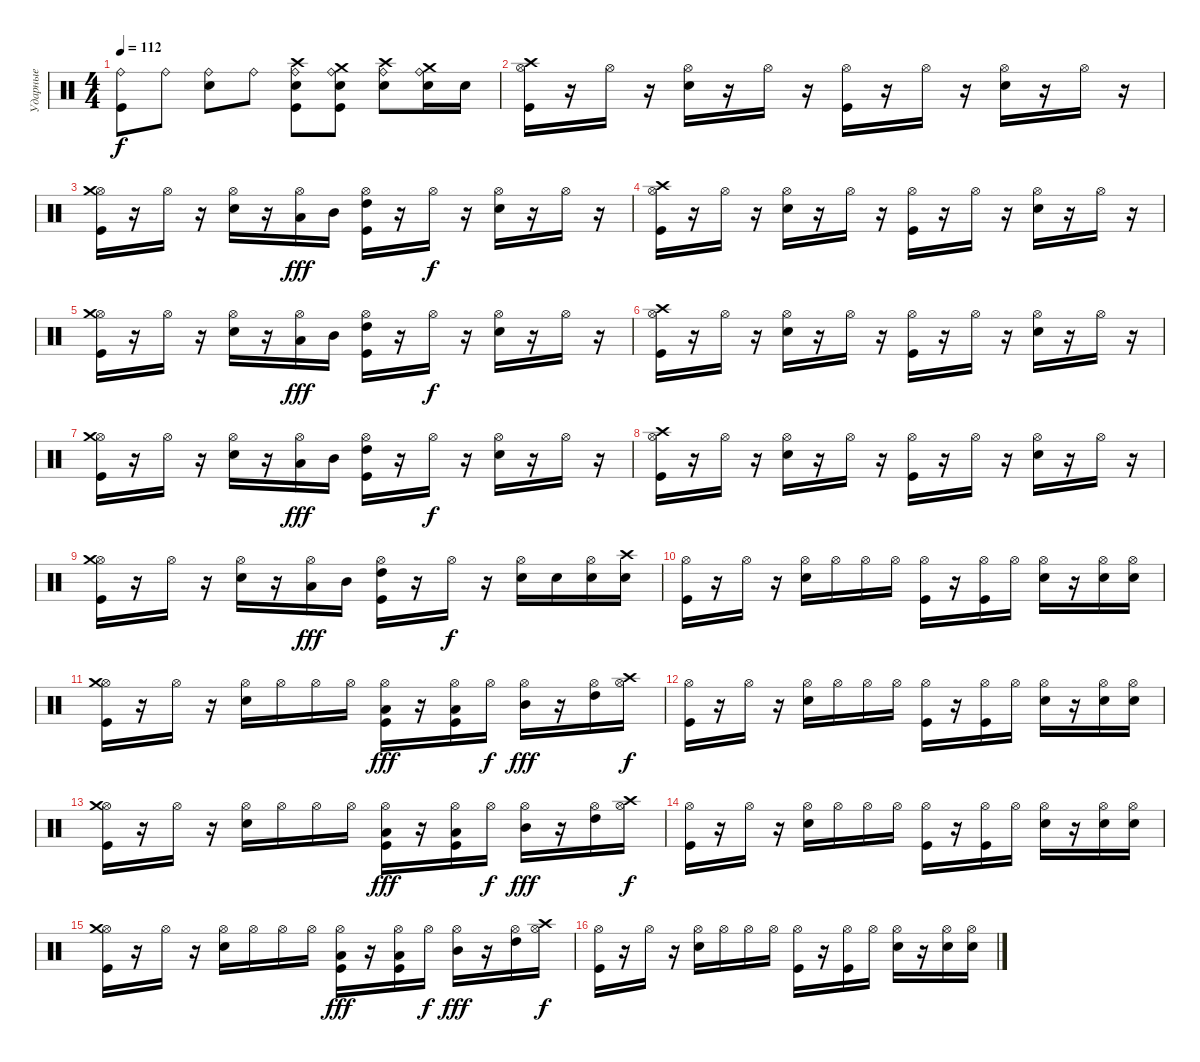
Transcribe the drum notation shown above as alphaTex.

\track ("Ударные" "Ударные") {instrument percussion}
\staff {score}
\articulation defaults
\ts (4 4)
\tempo 112
\clef neutral
\ks c
("Ride (bell)" "Kick (hit)").8{dy f} "Ride (bell)".8 ("Ride (bell)" "Snare (hit) 2").8 "Ride (bell)".8 ("Ride (bell)" "Crash high (hit)" "Snare (hit) 2" "Kick (hit)").8 ("Ride (bell)" "Crash medium (hit)" "Snare (hit) 2" "Kick (hit)").8 ("Ride (bell)" "Crash high (hit)" "Snare (hit) 2").8 ("Ride (bell)" "Crash medium (hit)" "Snare (hit) 2").16 "Snare (hit) 2".16 |
("Hi-Hat (open)" "Crash high (hit)" "Kick (hit)").16 r.16 "Hi-Hat (open)".16 r.16 ("Hi-Hat (open)" "Snare (hit) 2").16 r.16 "Hi-Hat (open)".16 r.16 ("Hi-Hat (open)" "Kick (hit)").16 r.16 "Hi-Hat (open)".16 r.16 ("Hi-Hat (open)" "Snare (hit) 2").16 r.16 "Hi-Hat (open)".16 r.16 |
("Hi-Hat (open)" "Crash medium (hit)" "Kick (hit)").16 r.16 "Hi-Hat (open)".16 r.16 ("Hi-Hat (open)" "Snare (hit) 2").16 r.16 ("Hi-Hat (open)" "Low Tom (hit)").16{dy fff} "Mid Tom (hit)".16 ("Hi-Hat (open)" "High Tom (hit)" "Kick (hit)").16 r.16 "Hi-Hat (open)".16{dy f} r.16 ("Hi-Hat (open)" "Snare (hit) 2").16 r.16 "Hi-Hat (open)".16 r.16 |
("Hi-Hat (open)" "Crash high (hit)" "Kick (hit)").16 r.16 "Hi-Hat (open)".16 r.16 ("Hi-Hat (open)" "Snare (hit) 2").16 r.16 "Hi-Hat (open)".16 r.16 ("Hi-Hat (open)" "Kick (hit)").16 r.16 "Hi-Hat (open)".16 r.16 ("Hi-Hat (open)" "Snare (hit) 2").16 r.16 "Hi-Hat (open)".16 r.16 |
("Hi-Hat (open)" "Crash medium (hit)" "Kick (hit)").16 r.16 "Hi-Hat (open)".16 r.16 ("Hi-Hat (open)" "Snare (hit) 2").16 r.16 ("Hi-Hat (open)" "Low Tom (hit)").16{dy fff} "Mid Tom (hit)".16 ("Hi-Hat (open)" "High Tom (hit)" "Kick (hit)").16 r.16 "Hi-Hat (open)".16{dy f} r.16 ("Hi-Hat (open)" "Snare (hit) 2").16 r.16 "Hi-Hat (open)".16 r.16 |
("Hi-Hat (open)" "Crash high (hit)" "Kick (hit)").16 r.16 "Hi-Hat (open)".16 r.16 ("Hi-Hat (open)" "Snare (hit) 2").16 r.16 "Hi-Hat (open)".16 r.16 ("Hi-Hat (open)" "Kick (hit)").16 r.16 "Hi-Hat (open)".16 r.16 ("Hi-Hat (open)" "Snare (hit) 2").16 r.16 "Hi-Hat (open)".16 r.16 |
("Hi-Hat (open)" "Crash medium (hit)" "Kick (hit)").16 r.16 "Hi-Hat (open)".16 r.16 ("Hi-Hat (open)" "Snare (hit) 2").16 r.16 ("Hi-Hat (open)" "Low Tom (hit)").16{dy fff} "Mid Tom (hit)".16 ("Hi-Hat (open)" "High Tom (hit)" "Kick (hit)").16 r.16 "Hi-Hat (open)".16{dy f} r.16 ("Hi-Hat (open)" "Snare (hit) 2").16 r.16 "Hi-Hat (open)".16 r.16 |
("Hi-Hat (open)" "Crash high (hit)" "Kick (hit)").16 r.16 "Hi-Hat (open)".16 r.16 ("Hi-Hat (open)" "Snare (hit) 2").16 r.16 "Hi-Hat (open)".16 r.16 ("Hi-Hat (open)" "Kick (hit)").16 r.16 "Hi-Hat (open)".16 r.16 ("Hi-Hat (open)" "Snare (hit) 2").16 r.16 "Hi-Hat (open)".16 r.16 |
("Hi-Hat (open)" "Crash medium (hit)" "Kick (hit)").16 r.16 "Hi-Hat (open)".16 r.16 ("Hi-Hat (open)" "Snare (hit) 2").16 r.16 ("Hi-Hat (open)" "Low Tom (hit)").16{dy fff} "Mid Tom (hit)".16 ("Hi-Hat (open)" "High Tom (hit)" "Kick (hit)").16 r.16 "Hi-Hat (open)".16{dy f} r.16 ("Hi-Hat (open)" "Snare (hit) 2").16 "Snare (hit) 2".16 ("Hi-Hat (open)" "Snare (hit) 2").16 ("Crash high (hit)" "Snare (hit) 2").16 |
("Hi-Hat (open)" "Kick (hit)").16 r.16 "Hi-Hat (open)".16 r.16 ("Hi-Hat (open)" "Snare (hit) 2").16 "Hi-Hat (open)".16 "Hi-Hat (open)".16 "Hi-Hat (open)".16 ("Hi-Hat (open)" "Kick (hit)").16 r.16 ("Hi-Hat (open)" "Kick (hit)").16 "Hi-Hat (open)".16 ("Hi-Hat (open)" "Snare (hit) 2").16 r.16 ("Hi-Hat (open)" "Snare (hit) 2").16 ("Hi-Hat (open)" "Snare (hit) 2").16 |
("Hi-Hat (open)" "Crash medium (hit)" "Kick (hit)").16 r.16 "Hi-Hat (open)".16 r.16 ("Hi-Hat (open)" "Snare (hit) 2").16 "Hi-Hat (open)".16 "Hi-Hat (open)".16 "Hi-Hat (open)".16 ("Hi-Hat (open)" "Low Tom (hit)" "Kick (hit)").16{dy fff} r.16 ("Hi-Hat (open)" "Low Tom (hit)" "Kick (hit)").16 "Hi-Hat (open)".16{dy f} ("Hi-Hat (open)" "Mid Tom (hit)").16{dy fff} r.16 ("Hi-Hat (open)" "High Tom (hit)").16 ("Hi-Hat (open)" "Crash high (hit)").16{dy f} |
("Hi-Hat (open)" "Kick (hit)").16 r.16 "Hi-Hat (open)".16 r.16 ("Hi-Hat (open)" "Snare (hit) 2").16 "Hi-Hat (open)".16 "Hi-Hat (open)".16 "Hi-Hat (open)".16 ("Hi-Hat (open)" "Kick (hit)").16 r.16 ("Hi-Hat (open)" "Kick (hit)").16 "Hi-Hat (open)".16 ("Hi-Hat (open)" "Snare (hit) 2").16 r.16 ("Hi-Hat (open)" "Snare (hit) 2").16 ("Hi-Hat (open)" "Snare (hit) 2").16 |
("Hi-Hat (open)" "Crash medium (hit)" "Kick (hit)").16 r.16 "Hi-Hat (open)".16 r.16 ("Hi-Hat (open)" "Snare (hit) 2").16 "Hi-Hat (open)".16 "Hi-Hat (open)".16 "Hi-Hat (open)".16 ("Hi-Hat (open)" "Low Tom (hit)" "Kick (hit)").16{dy fff} r.16 ("Hi-Hat (open)" "Low Tom (hit)" "Kick (hit)").16 "Hi-Hat (open)".16{dy f} ("Hi-Hat (open)" "Mid Tom (hit)").16{dy fff} r.16 ("Hi-Hat (open)" "High Tom (hit)").16 ("Hi-Hat (open)" "Crash high (hit)").16{dy f} |
("Hi-Hat (open)" "Kick (hit)").16 r.16 "Hi-Hat (open)".16 r.16 ("Hi-Hat (open)" "Snare (hit) 2").16 "Hi-Hat (open)".16 "Hi-Hat (open)".16 "Hi-Hat (open)".16 ("Hi-Hat (open)" "Kick (hit)").16 r.16 ("Hi-Hat (open)" "Kick (hit)").16 "Hi-Hat (open)".16 ("Hi-Hat (open)" "Snare (hit) 2").16 r.16 ("Hi-Hat (open)" "Snare (hit) 2").16 ("Hi-Hat (open)" "Snare (hit) 2").16 |
("Hi-Hat (open)" "Crash medium (hit)" "Kick (hit)").16 r.16 "Hi-Hat (open)".16 r.16 ("Hi-Hat (open)" "Snare (hit) 2").16 "Hi-Hat (open)".16 "Hi-Hat (open)".16 "Hi-Hat (open)".16 ("Hi-Hat (open)" "Low Tom (hit)" "Kick (hit)").16{dy fff} r.16 ("Hi-Hat (open)" "Low Tom (hit)" "Kick (hit)").16 "Hi-Hat (open)".16{dy f} ("Hi-Hat (open)" "Mid Tom (hit)").16{dy fff} r.16 ("Hi-Hat (open)" "High Tom (hit)").16 ("Hi-Hat (open)" "Crash high (hit)").16{dy f} |
("Hi-Hat (open)" "Kick (hit)").16 r.16 "Hi-Hat (open)".16 r.16 ("Hi-Hat (open)" "Snare (hit) 2").16 "Hi-Hat (open)".16 "Hi-Hat (open)".16 "Hi-Hat (open)".16 ("Hi-Hat (open)" "Kick (hit)").16 r.16 ("Hi-Hat (open)" "Kick (hit)").16 "Hi-Hat (open)".16 ("Hi-Hat (open)" "Snare (hit) 2").16 r.16 ("Hi-Hat (open)" "Snare (hit) 2").16 ("Hi-Hat (open)" "Snare (hit) 2").16
